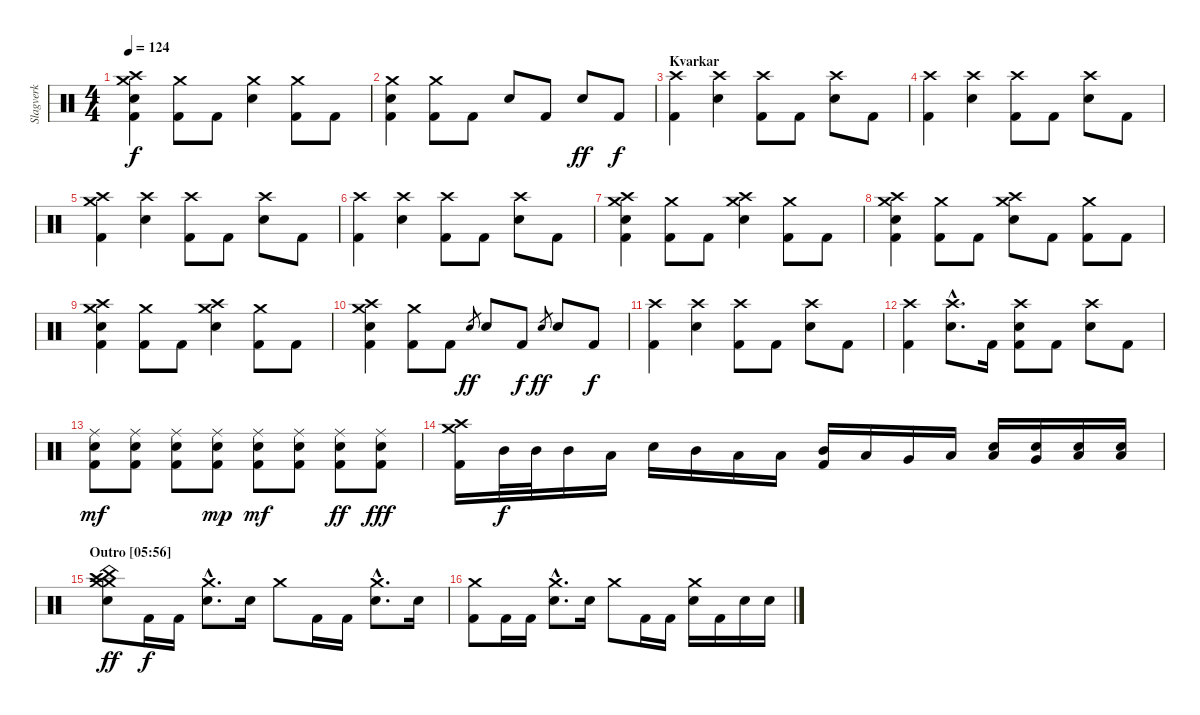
\track ("Slagverk" "Slagverk") {instrument percussion}
\staff {score}
\articulation defaults
\ts (4 4)
\section ("" "")
\tempo 124
\clef neutral
\ks c
("Crash medium (hit)" "Crash high (hit)" "Electric Snare (hit)" "Kick (hit) 2").4{dy f} ("Crash medium (hit)" "Kick (hit) 2").8 "Kick (hit) 2".8 ("Crash medium (hit)" "Electric Snare (hit)").4 ("Crash medium (hit)" "Kick (hit) 2").8 "Kick (hit) 2".8 |
("Crash medium (hit)" "Electric Snare (hit)" "Kick (hit) 2").4 ("Crash medium (hit)" "Kick (hit) 2").8 "Kick (hit) 2".8 "Electric Snare (hit)".8 "Kick (hit) 2".8 "Electric Snare (hit)".8{dy ff} "Kick (hit) 2".8{dy f} |
\section ("" "Kvarkar")
("Crash high (hit)" "Kick (hit) 2").4 ("Crash high (hit)" "Electric Snare (hit)").4 ("Crash high (hit)" "Kick (hit) 2").8 "Kick (hit) 2".8 ("Crash high (hit)" "Electric Snare (hit)").8 "Kick (hit) 2".8 |
("Crash high (hit)" "Kick (hit) 2").4 ("Crash high (hit)" "Electric Snare (hit)").4 ("Crash high (hit)" "Kick (hit) 2").8 "Kick (hit) 2".8 ("Crash high (hit)" "Electric Snare (hit)").8 "Kick (hit) 2".8 |
("Crash high (hit)" "Crash medium (hit)" "Kick (hit) 2").4 ("Crash high (hit)" "Electric Snare (hit)").4 ("Crash high (hit)" "Kick (hit) 2").8 "Kick (hit) 2".8 ("Crash high (hit)" "Electric Snare (hit)").8 "Kick (hit) 2".8 |
("Crash high (hit)" "Kick (hit) 2").4 ("Crash high (hit)" "Electric Snare (hit)").4 ("Crash high (hit)" "Kick (hit) 2").8 "Kick (hit) 2".8 ("Crash high (hit)" "Electric Snare (hit)").8 "Kick (hit) 2".8 |
\section ("" "")
("Crash medium (hit)" "Crash high (hit)" "Electric Snare (hit)" "Kick (hit) 2").4 ("Crash medium (hit)" "Kick (hit) 2").8 "Kick (hit) 2".8 ("Crash medium (hit)" "Crash high (hit)" "Electric Snare (hit)").4 ("Crash medium (hit)" "Kick (hit) 2").8 "Kick (hit) 2".8 |
("Crash medium (hit)" "Crash high (hit)" "Electric Snare (hit)" "Kick (hit) 2").4 ("Crash medium (hit)" "Kick (hit) 2").8 "Kick (hit) 2".8 ("Crash medium (hit)" "Crash high (hit)" "Electric Snare (hit)").8 "Kick (hit) 2".8 ("Crash medium (hit)" "Kick (hit) 2").8 "Kick (hit) 2".8 |
("Crash medium (hit)" "Crash high (hit)" "Electric Snare (hit)" "Kick (hit) 2").4 ("Crash medium (hit)" "Kick (hit) 2").8 "Kick (hit) 2".8 ("Crash medium (hit)" "Crash high (hit)" "Electric Snare (hit)").4 ("Crash medium (hit)" "Kick (hit) 2").8 "Kick (hit) 2".8 |
("Crash medium (hit)" "Crash high (hit)" "Electric Snare (hit)" "Kick (hit) 2").4 ("Crash medium (hit)" "Kick (hit) 2").8 "Kick (hit) 2".8 "Electric Snare (hit)".8{gr dy ff} "Electric Snare (hit)".8 "Kick (hit) 2".8{dy f} "Electric Snare (hit)".8{gr dy ff} "Electric Snare (hit)".8 "Kick (hit) 2".8{dy f} |
\section ("" "")
("Crash high (hit)" "Kick (hit) 2").4 ("Crash high (hit)" "Electric Snare (hit)").4 ("Crash high (hit)" "Kick (hit) 2").8 "Kick (hit) 2".8 ("Crash high (hit)" "Electric Snare (hit)").8 "Kick (hit) 2".8 |
("Crash high (hit)" "Kick (hit) 2").4 ("Crash high (hit)"{hac} "Electric Snare (hit)"{hac}).8{d} "Kick (hit) 2".16 ("Crash high (hit)" "Electric Snare (hit)" "Kick (hit) 2").8 "Kick (hit) 2".8 ("Crash high (hit)" "Electric Snare (hit)").8 "Kick (hit) 2".8 |
("Ride (middle)" "Electric Snare (hit)" "Kick (hit) 2").8{dy mf} ("Ride (middle)" "Electric Snare (hit)" "Kick (hit) 2").8 ("Ride (middle)" "Electric Snare (hit)" "Kick (hit) 2").8 ("Ride (middle)" "Electric Snare (hit)" "Kick (hit) 2").8{dy mp} ("Ride (middle)" "Electric Snare (hit)" "Kick (hit) 2").8{dy mf} ("Ride (middle)" "Electric Snare (hit)" "Kick (hit) 2").8 ("Ride (middle)" "Electric Snare (hit)" "Kick (hit) 2").8{dy ff} ("Ride (middle)" "Electric Snare (hit)" "Kick (hit) 2").8{dy fff} |
("Crash high (hit)" "Crash medium (hit)" "Kick (hit) 2").16 "Mid Tom (hit)".32{dy f} "Mid Tom (hit)".32 "Mid Tom (hit)".16 "Low Tom (hit)".16 "Electric Snare (hit)".16 "Mid Tom (hit)".16 "Low Tom (hit)".16 "Low Tom (hit)".16 ("Mid Tom (hit)" "Kick (hit) 2").16 "Low Tom (hit)".16 "Very Low Tom (hit)".16 "Low Floor Tom (hit)".16 ("Low Tom (hit)" "Electric Snare (hit)").16 ("Very Low Tom (hit)" "Electric Snare (hit)").16 ("Low Floor Tom (hit)" "Electric Snare (hit)").16 ("Low Floor Tom (hit)" "Electric Snare (hit)").16 |
\section ("" "Outro [05:56]")
("Crash medium (hit)" "Crash medium (hit)" "China (hit)" "Crash high (hit)" "Electric Snare (hit)").8{dy ff} "Kick (hit) 2".16{dy f} "Kick (hit) 2".16 ("Crash medium (hit)"{hac} "Electric Snare (hit)"{hac}).8{d} "Electric Snare (hit)".16 "Crash medium (hit)".8 "Kick (hit) 2".16 "Kick (hit) 2".16 ("Crash medium (hit)"{hac} "Electric Snare (hit)"{hac}).8{d} "Electric Snare (hit)".16 |
("Crash medium (hit)" "Kick (hit) 2").8 "Kick (hit) 2".16 "Kick (hit) 2".16 ("Crash medium (hit)"{hac} "Electric Snare (hit)"{hac}).8{d} "Electric Snare (hit)".16 "Crash medium (hit)".8 "Kick (hit) 2".16 "Kick (hit) 2".16 ("Crash medium (hit)" "Electric Snare (hit)").16 "Kick (hit) 2".16 "Electric Snare (hit)".16 "Electric Snare (hit)".16
